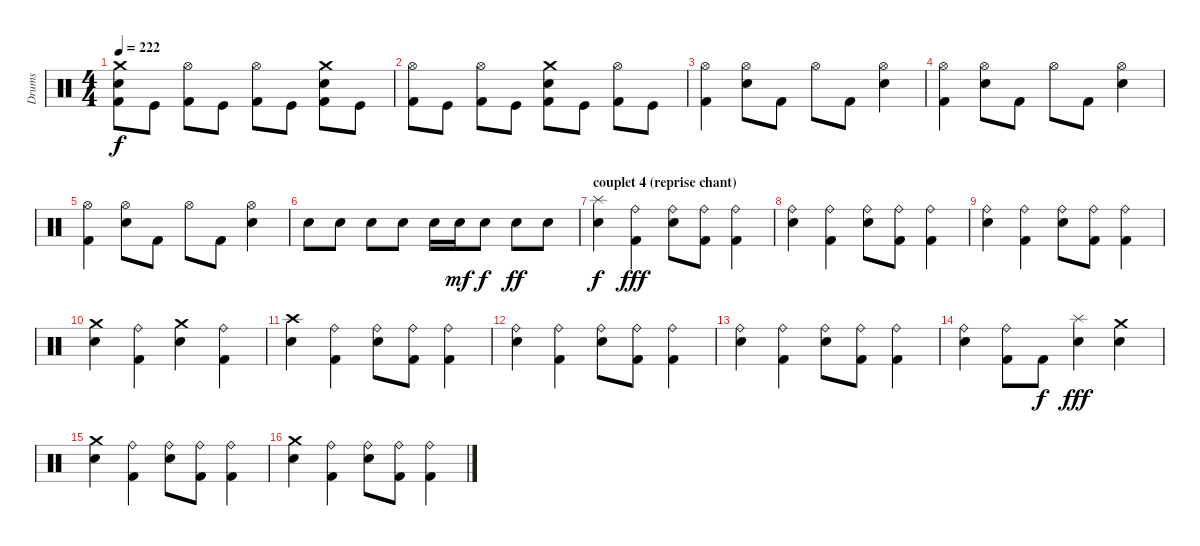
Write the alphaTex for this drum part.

\track ("Drums" "Drums") {instrument percussion}
\staff {score}
\articulation defaults
\ts (4 4)
\tempo 222
\clef neutral
\ks c
("Kick (hit) 2" "Electric Snare (hit)" "Crash medium (hit)").8{dy f} "Kick (hit)".8 ("Kick (hit) 2" "Hi-Hat (open)").8 "Kick (hit)".8 ("Kick (hit) 2" "Hi-Hat (open)").8 "Kick (hit)".8 ("Kick (hit) 2" "Electric Snare (hit)" "Crash medium (hit)").8 "Kick (hit)".8 |
("Kick (hit) 2" "Hi-Hat (open)").8 "Kick (hit)".8 ("Kick (hit) 2" "Hi-Hat (open)").8 "Kick (hit)".8 ("Kick (hit) 2" "Electric Snare (hit)" "Crash medium (hit)").8 "Kick (hit)".8 ("Kick (hit) 2" "Hi-Hat (open)").8 "Kick (hit)".8 |
("Kick (hit) 2" "Hi-Hat (open)").4 ("Electric Snare (hit)" "Hi-Hat (open)").8 "Kick (hit) 2".8 "Hi-Hat (open)".8 "Kick (hit) 2".8 ("Electric Snare (hit)" "Hi-Hat (open)").4 |
("Kick (hit) 2" "Hi-Hat (open)").4 ("Electric Snare (hit)" "Hi-Hat (open)").8 "Kick (hit) 2".8 "Hi-Hat (open)".8 "Kick (hit) 2".8 ("Electric Snare (hit)" "Hi-Hat (open)").4 |
("Kick (hit) 2" "Hi-Hat (open)").4 ("Electric Snare (hit)" "Hi-Hat (open)").8 "Kick (hit) 2".8 "Hi-Hat (open)".8 "Kick (hit) 2".8 ("Electric Snare (hit)" "Hi-Hat (open)").4 |
"Electric Snare (hit)".8 "Electric Snare (hit)".8 "Electric Snare (hit)".8 "Electric Snare (hit)".8 "Electric Snare (hit)".16 "Electric Snare (hit)".16{dy mf} "Electric Snare (hit)".8{dy f} "Electric Snare (hit)".8{dy ff} "Electric Snare (hit)".8 |
\section ("" "couplet 4 (reprise chant)")
("Electric Snare (hit)" "Splash (hit)").4{dy f} ("Kick (hit) 2" "Ride (bell)").4{dy fff} ("Electric Snare (hit)" "Ride (bell)").8 ("Kick (hit) 2" "Ride (bell)").8 ("Kick (hit) 2" "Ride (bell)").4 |
("Electric Snare (hit)" "Ride (bell)").4 ("Kick (hit) 2" "Ride (bell)").4 ("Electric Snare (hit)" "Ride (bell)").8 ("Kick (hit) 2" "Ride (bell)").8 ("Kick (hit) 2" "Ride (bell)").4 |
("Electric Snare (hit)" "Ride (bell)").4 ("Kick (hit) 2" "Ride (bell)").4 ("Electric Snare (hit)" "Ride (bell)").8 ("Kick (hit) 2" "Ride (bell)").8 ("Kick (hit) 2" "Ride (bell)").4 |
("Electric Snare (hit)" "Crash medium (hit)").4 ("Kick (hit) 2" "Ride (bell)").4 ("Electric Snare (hit)" "Crash medium (hit)").4 ("Kick (hit) 2" "Ride (bell)").4 |
("Electric Snare (hit)" "Crash high (hit)").4 ("Kick (hit) 2" "Ride (bell)").4 ("Electric Snare (hit)" "Ride (bell)").8 ("Kick (hit) 2" "Ride (bell)").8 ("Kick (hit) 2" "Ride (bell)").4 |
("Electric Snare (hit)" "Ride (bell)").4 ("Kick (hit) 2" "Ride (bell)").4 ("Electric Snare (hit)" "Ride (bell)").8 ("Kick (hit) 2" "Ride (bell)").8 ("Kick (hit) 2" "Ride (bell)").4 |
("Electric Snare (hit)" "Ride (bell)").4 ("Kick (hit) 2" "Ride (bell)").4 ("Electric Snare (hit)" "Ride (bell)").8 ("Kick (hit) 2" "Ride (bell)").8 ("Kick (hit) 2" "Ride (bell)").4 |
("Electric Snare (hit)" "Ride (bell)").4 ("Kick (hit) 2" "Ride (bell)").8 "Kick (hit) 2".8{dy f} ("Electric Snare (hit)" "Splash (hit)").4{dy fff} ("Electric Snare (hit)" "Crash medium (hit)").4 |
("Electric Snare (hit)" "Crash medium (hit)").4 ("Kick (hit) 2" "Ride (bell)").4 ("Electric Snare (hit)" "Ride (bell)").8 ("Kick (hit) 2" "Ride (bell)").8 ("Kick (hit) 2" "Ride (bell)").4 |
("Electric Snare (hit)" "Crash medium (hit)").4 ("Kick (hit) 2" "Ride (bell)").4 ("Electric Snare (hit)" "Ride (bell)").8 ("Kick (hit) 2" "Ride (bell)").8 ("Kick (hit) 2" "Ride (bell)").4
